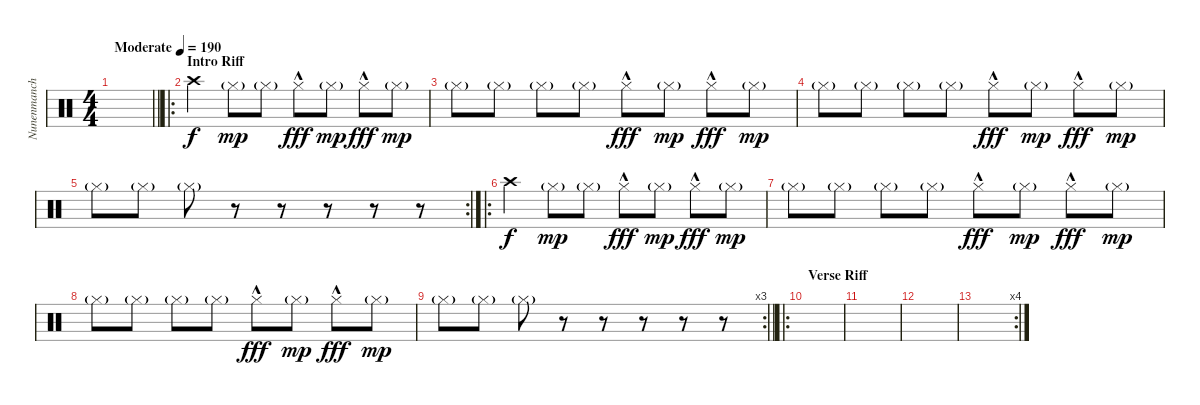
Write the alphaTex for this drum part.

\track ("Nunenmancher" "Nunenmanch") {instrument percussion}
\staff {score}
\articulation defaults
\ts (4 4)
\tempo (190 "Moderate")
\clef neutral
\barLineRight lightlight
\ks c
|
\ro
\section ("" "Intro Riff")
"Crash high (hit)".4 "Hi-Hat (closed)"{g}.8{dy mp} "Hi-Hat (closed)"{g}.8 "Hi-Hat (closed)"{hac}.8{dy fff} "Hi-Hat (closed)"{g}.8{dy mp} "Hi-Hat (closed)"{hac}.8{dy fff} "Hi-Hat (closed)"{g}.8{dy mp} |
"Hi-Hat (closed)"{g}.8 "Hi-Hat (closed)"{g}.8 "Hi-Hat (closed)"{g}.8 "Hi-Hat (closed)"{g}.8 "Hi-Hat (closed)"{hac}.8{dy fff} "Hi-Hat (closed)"{g}.8{dy mp} "Hi-Hat (closed)"{hac}.8{dy fff} "Hi-Hat (closed)"{g}.8{dy mp} |
"Hi-Hat (closed)"{g}.8 "Hi-Hat (closed)"{g}.8 "Hi-Hat (closed)"{g}.8 "Hi-Hat (closed)"{g}.8 "Hi-Hat (closed)"{hac}.8{dy fff} "Hi-Hat (closed)"{g}.8{dy mp} "Hi-Hat (closed)"{hac}.8{dy fff} "Hi-Hat (closed)"{g}.8{dy mp} |
\rc 2 "Hi-Hat (closed)"{g}.8 "Hi-Hat (closed)"{g}.8 "Hi-Hat (closed)"{g}.8
r.8 r.8 r.8 r.8 r.8 |
\ro "Crash high (hit)".4{dy f} "Hi-Hat (closed)"{g}.8{dy mp} "Hi-Hat (closed)"{g}.8 "Hi-Hat (closed)"{hac}.8{dy fff} "Hi-Hat (closed)"{g}.8{dy mp} "Hi-Hat (closed)"{hac}.8{dy fff} "Hi-Hat (closed)"{g}.8{dy mp}
|
"Hi-Hat (closed)"{g}.8 "Hi-Hat (closed)"{g}.8 "Hi-Hat (closed)"{g}.8 "Hi-Hat (closed)"{g}.8 "Hi-Hat (closed)"{hac}.8{dy fff} "Hi-Hat (closed)"{g}.8{dy mp} "Hi-Hat (closed)"{hac}.8{dy fff} "Hi-Hat (closed)"{g}.8{dy mp} |
"Hi-Hat (closed)"{g}.8 "Hi-Hat (closed)"{g}.8 "Hi-Hat (closed)"{g}.8 "Hi-Hat (closed)"{g}.8 "Hi-Hat (closed)"{hac}.8{dy fff} "Hi-Hat (closed)"{g}.8{dy mp} "Hi-Hat (closed)"{hac}.8{dy fff} "Hi-Hat (closed)"{g}.8{dy mp} |
\rc 3
\barLineRight lightlight "Hi-Hat (closed)"{g}.8 "Hi-Hat (closed)"{g}.8 "Hi-Hat (closed)"{g}.8
r.8 r.8 r.8 r.8 r.8 |
\ro
\section ("" "Verse Riff")
|
|
|
\rc 4
